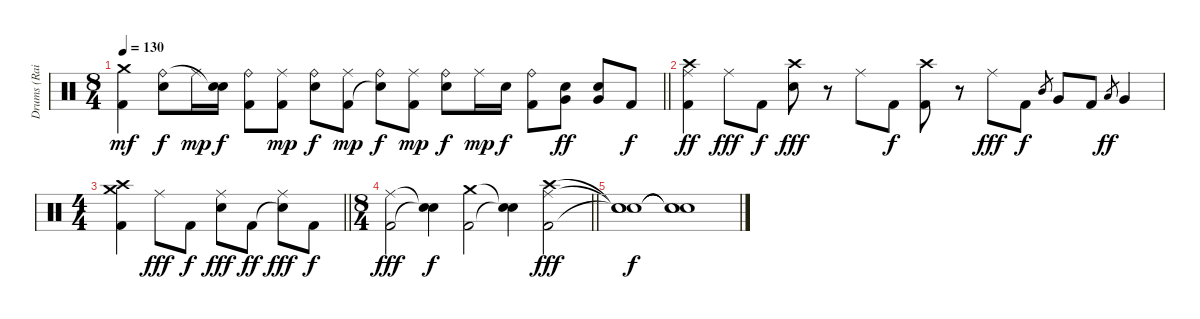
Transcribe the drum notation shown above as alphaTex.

\track ("Drums (Raimund)" "Drums (Rai") {instrument percussion}
\staff {score}
\articulation defaults
\ts (8 4)
\tempo 130
\clef neutral
\barLineRight lightlight
\ks c
("Crash medium (hit)" "Kick (hit) 2").4{dy mf} ("Snare (hit) 2" "Ride (bell)").8{dy f} "Ride (middle)".16{dy mp} ("Snare (hit) 2" "Snare (hit)"{t}).16{dy f} ("Ride (bell)" "Kick (hit) 2").8 ("Ride (middle)" "Kick (hit) 2").8{dy mp} ("Snare (hit) 2" "Ride (bell)").8{dy f} ("Ride (middle)" "Kick (hit) 2").8{dy mp} ("Ride (bell)" "Snare (hit)"{t}).8{dy f} ("Ride (middle)" "Kick (hit) 2").8{dy mp} ("Snare (hit) 2" "Ride (bell)").8{dy f} "Ride (middle)".16{dy mp} "Snare (hit) 2".16{dy f} ("Ride (bell)" "Kick (hit) 2").8 ("Snare (hit) 2" "Very Low Tom (hit)").8{dy ff} ("Snare (hit) 2" "Very Low Tom (hit)").8 "Kick (hit) 2".8{dy f} |
("Crash high (hit)" "Ride (middle)" "Kick (hit) 2").4{dy ff} "Ride (middle)".8{dy fff} "Kick (hit) 2".8{dy f} ("Crash high (hit)" "Snare (hit) 2").8{dy fff} r.8 "Ride (middle)".8 "Kick (hit) 2".8{dy f} ("Crash high (hit)" "Kick (hit) 2").8 r.8 "Ride (middle)".8{dy fff} "Kick (hit) 2".8{dy f} "Mid Tom (hit)".8{gr} "Very Low Tom (hit)".8 "Kick (hit) 2".8 "Low Floor Tom (hit)".8{gr dy ff} "Very Low Tom (hit)".4 |
\ts (4 4)
\barLineRight lightlight
("Crash high (hit)" "Crash medium (hit)" "Kick (hit) 2").4 "Ride (middle)".8{dy fff} "Kick (hit) 2".8{dy f} ("Snare (hit) 2" "Ride (middle)").8{dy fff} "Kick (hit) 2".8{dy ff} ("Snare (hit)"{t} "Ride (middle)").8{dy fff} "Kick (hit) 2".8{dy f} |
\ts (8 4)
\barLineRight lightlight
("Ride (middle)" "Kick (hit) 2").2{dy fff} ("Snare (hit)"{t} "Snare (hit)"{t}).4{dy f} ("Crash medium (hit)" "Kick (hit) 2").2 ("Snare (hit)"{t} "Snare (hit)"{t}).4 ("Crash high (hit)" "Ride (middle)" "Kick (hit) 2").2{dy fff} |
("Snare (hit)"{t} "Snare (hit)"{t} "Snare (hit)"{t}).1{dy f} ("Snare (hit)"{t} "Snare (hit)"{t} "Snare (hit)"{t}).1
